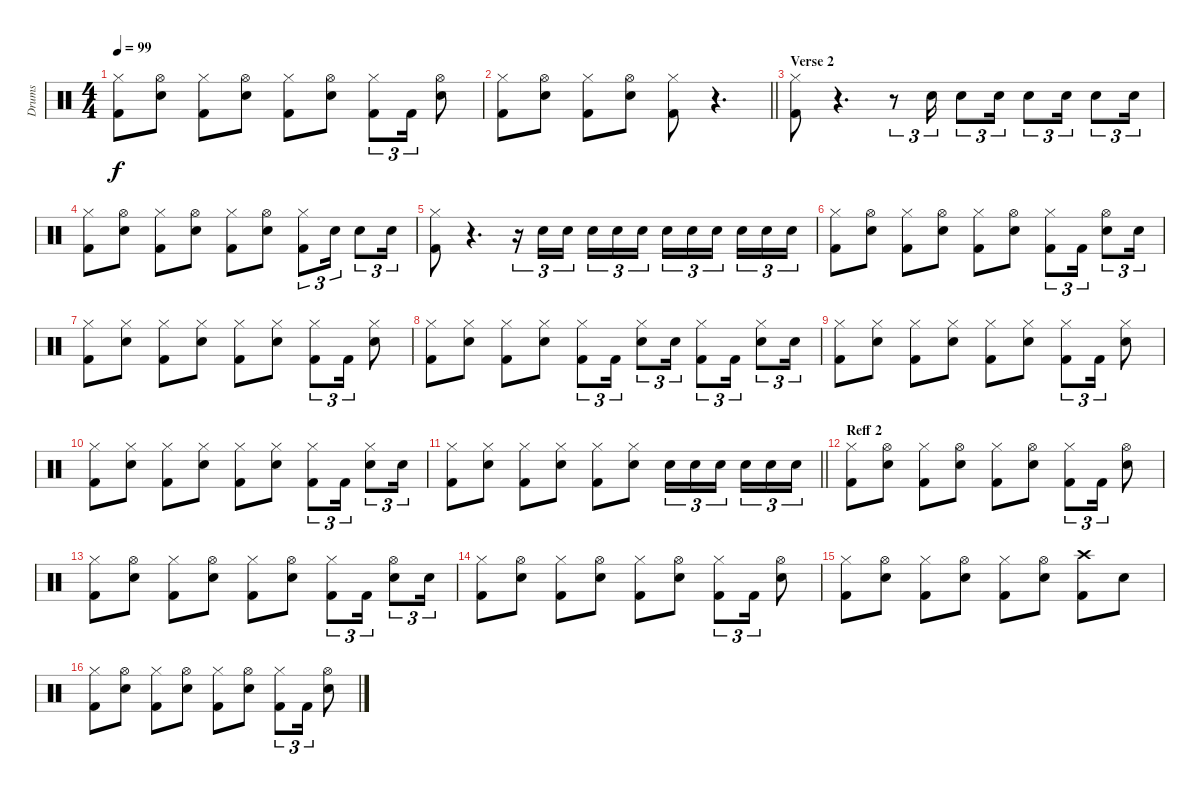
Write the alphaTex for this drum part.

\track ("Drums" "Drums") {instrument percussion}
\staff {score}
\articulation defaults
\ts (4 4)
\tempo 99
\clef neutral
\ks c
("Hi-Hat (closed)" "Kick (hit) 2").8{dy f} ("Hi-Hat (open)" "Snare (hit) 2").8 ("Hi-Hat (closed)" "Kick (hit) 2").8 ("Hi-Hat (open)" "Snare (hit) 2").8 ("Hi-Hat (closed)" "Kick (hit) 2").8 ("Hi-Hat (open)" "Snare (hit) 2").8 ("Hi-Hat (closed)" "Kick (hit) 2").8{tu (3 2)} "Kick (hit) 2".16{tu (3 2)} ("Hi-Hat (open)" "Snare (hit) 2").8 |
\barLineRight lightlight
("Hi-Hat (closed)" "Kick (hit) 2").8 ("Hi-Hat (open)" "Snare (hit) 2").8 ("Hi-Hat (closed)" "Kick (hit) 2").8 ("Hi-Hat (open)" "Snare (hit) 2").8 ("Hi-Hat (closed)" "Kick (hit) 2").8 r.4{d} |
\section ("" "Verse 2")
("Hi-Hat (closed)" "Kick (hit) 2").8 r.4{d} r.8{tu (3 2)} "Snare (hit) 2".16{tu (3 2)} "Snare (hit) 2".8{tu (3 2)} "Snare (hit) 2".16{tu (3 2)} "Snare (hit) 2".8{tu (3 2)} "Snare (hit) 2".16{tu (3 2)} "Snare (hit) 2".8{tu (3 2)} "Snare (hit) 2".16{tu (3 2)} |
("Hi-Hat (closed)" "Kick (hit) 2").8 ("Hi-Hat (open)" "Snare (hit) 2").8 ("Hi-Hat (closed)" "Kick (hit) 2").8 ("Hi-Hat (open)" "Snare (hit) 2").8 ("Hi-Hat (closed)" "Kick (hit) 2").8 ("Hi-Hat (open)" "Snare (hit) 2").8 ("Hi-Hat (closed)" "Kick (hit) 2").8{tu (3 2)} "Snare (hit) 2".16{tu (3 2)} "Snare (hit) 2".8{tu (3 2)} "Snare (hit) 2".16{tu (3 2)} |
("Hi-Hat (closed)" "Kick (hit) 2").8 r.4{d} r.16{tu (3 2)} "Snare (hit) 2".16{tu (3 2)} "Snare (hit) 2".16{tu (3 2) beam splitsecondary} "Snare (hit) 2".16{tu (3 2)} "Snare (hit) 2".16{tu (3 2)} "Snare (hit) 2".16{tu (3 2)} "Snare (hit) 2".16{tu (3 2)} "Snare (hit) 2".16{tu (3 2)} "Snare (hit) 2".16{tu (3 2) beam splitsecondary} "Snare (hit) 2".16{tu (3 2)} "Snare (hit) 2".16{tu (3 2)} "Snare (hit) 2".16{tu (3 2)} |
("Hi-Hat (closed)" "Kick (hit) 2").8 ("Hi-Hat (open)" "Snare (hit) 2").8 ("Hi-Hat (closed)" "Kick (hit) 2").8 ("Hi-Hat (open)" "Snare (hit) 2").8 ("Hi-Hat (closed)" "Kick (hit) 2").8 ("Hi-Hat (open)" "Snare (hit) 2").8 ("Hi-Hat (closed)" "Kick (hit) 2").8{tu (3 2)} "Kick (hit) 2".16{tu (3 2)} ("Hi-Hat (open)" "Snare (hit) 2").8{tu (3 2)} "Snare (hit) 2".16{tu (3 2)} |
("Hi-Hat (closed)" "Kick (hit) 2").8 ("Hi-Hat (closed)" "Snare (hit) 2").8 ("Hi-Hat (closed)" "Kick (hit) 2").8 ("Hi-Hat (closed)" "Snare (hit) 2").8 ("Hi-Hat (closed)" "Kick (hit) 2").8 ("Hi-Hat (closed)" "Snare (hit) 2").8 ("Hi-Hat (closed)" "Kick (hit) 2").8{tu (3 2)} "Kick (hit) 2".16{tu (3 2)} ("Hi-Hat (closed)" "Snare (hit) 2").8 |
("Hi-Hat (closed)" "Kick (hit) 2").8 ("Hi-Hat (closed)" "Snare (hit) 2").8 ("Hi-Hat (closed)" "Kick (hit) 2").8 ("Hi-Hat (closed)" "Snare (hit) 2").8 ("Hi-Hat (closed)" "Kick (hit) 2").8{tu (3 2)} "Kick (hit) 2".16{tu (3 2)} ("Hi-Hat (closed)" "Snare (hit) 2").8{tu (3 2)} "Snare (hit) 2".16{tu (3 2)} ("Hi-Hat (closed)" "Kick (hit) 2").8{tu (3 2)} "Kick (hit) 2".16{tu (3 2)} ("Hi-Hat (closed)" "Snare (hit) 2").8{tu (3 2)} "Snare (hit) 2".16{tu (3 2)} |
("Hi-Hat (closed)" "Kick (hit) 2").8 ("Hi-Hat (closed)" "Snare (hit) 2").8 ("Hi-Hat (closed)" "Kick (hit) 2").8 ("Hi-Hat (closed)" "Snare (hit) 2").8 ("Hi-Hat (closed)" "Kick (hit) 2").8 ("Hi-Hat (closed)" "Snare (hit) 2").8 ("Hi-Hat (closed)" "Kick (hit) 2").8{tu (3 2)} "Kick (hit) 2".16{tu (3 2)} ("Hi-Hat (closed)" "Snare (hit) 2").8 |
("Hi-Hat (closed)" "Kick (hit) 2").8 ("Hi-Hat (closed)" "Snare (hit) 2").8 ("Hi-Hat (closed)" "Kick (hit) 2").8 ("Hi-Hat (closed)" "Snare (hit) 2").8 ("Hi-Hat (closed)" "Kick (hit) 2").8 ("Hi-Hat (closed)" "Snare (hit) 2").8 ("Hi-Hat (closed)" "Kick (hit) 2").8{tu (3 2)} "Kick (hit) 2".16{tu (3 2)} ("Hi-Hat (closed)" "Snare (hit) 2").8{tu (3 2)} "Snare (hit) 2".16{tu (3 2)} |
\barLineRight lightlight
("Hi-Hat (closed)" "Kick (hit) 2").8 ("Hi-Hat (closed)" "Snare (hit) 2").8 ("Hi-Hat (closed)" "Kick (hit) 2").8 ("Hi-Hat (closed)" "Snare (hit) 2").8 ("Hi-Hat (closed)" "Kick (hit) 2").8 ("Hi-Hat (closed)" "Snare (hit) 2").8 "Snare (hit) 2".16{tu (3 2)} "Snare (hit) 2".16{tu (3 2)} "Snare (hit) 2".16{tu (3 2) beam splitsecondary} "Snare (hit) 2".16{tu (3 2)} "Snare (hit) 2".16{tu (3 2)} "Snare (hit) 2".16{tu (3 2)} |
\section ("" "Reff 2")
("Hi-Hat (closed)" "Kick (hit) 2").8 ("Hi-Hat (open)" "Snare (hit) 2").8 ("Hi-Hat (closed)" "Kick (hit) 2").8 ("Hi-Hat (open)" "Snare (hit) 2").8 ("Hi-Hat (closed)" "Kick (hit) 2").8 ("Hi-Hat (open)" "Snare (hit) 2").8 ("Hi-Hat (closed)" "Kick (hit) 2").8{tu (3 2)} "Kick (hit) 2".16{tu (3 2)} ("Hi-Hat (open)" "Snare (hit) 2").8 |
("Hi-Hat (closed)" "Kick (hit) 2").8 ("Hi-Hat (open)" "Snare (hit) 2").8 ("Hi-Hat (closed)" "Kick (hit) 2").8 ("Hi-Hat (open)" "Snare (hit) 2").8 ("Hi-Hat (closed)" "Kick (hit) 2").8 ("Hi-Hat (open)" "Snare (hit) 2").8 ("Hi-Hat (closed)" "Kick (hit) 2").8{tu (3 2)} "Kick (hit) 2".16{tu (3 2)} ("Hi-Hat (open)" "Snare (hit) 2").8{tu (3 2)} "Snare (hit) 2".16{tu (3 2)} |
("Hi-Hat (closed)" "Kick (hit) 2").8 ("Hi-Hat (open)" "Snare (hit) 2").8 ("Hi-Hat (closed)" "Kick (hit) 2").8 ("Hi-Hat (open)" "Snare (hit) 2").8 ("Hi-Hat (closed)" "Kick (hit) 2").8 ("Hi-Hat (open)" "Snare (hit) 2").8 ("Hi-Hat (closed)" "Kick (hit) 2").8{tu (3 2)} "Kick (hit) 2".16{tu (3 2)} ("Hi-Hat (open)" "Snare (hit) 2").8 |
("Hi-Hat (closed)" "Kick (hit) 2").8 ("Hi-Hat (open)" "Snare (hit) 2").8 ("Hi-Hat (closed)" "Kick (hit) 2").8 ("Hi-Hat (open)" "Snare (hit) 2").8 ("Hi-Hat (closed)" "Kick (hit) 2").8 ("Hi-Hat (open)" "Snare (hit) 2").8 ("Crash high (hit)" "Kick (hit) 2").8 "Snare (hit) 2".8 |
("Hi-Hat (closed)" "Kick (hit) 2").8 ("Hi-Hat (open)" "Snare (hit) 2").8 ("Hi-Hat (closed)" "Kick (hit) 2").8 ("Hi-Hat (open)" "Snare (hit) 2").8 ("Hi-Hat (closed)" "Kick (hit) 2").8 ("Hi-Hat (open)" "Snare (hit) 2").8 ("Hi-Hat (closed)" "Kick (hit) 2").8{tu (3 2)} "Kick (hit) 2".16{tu (3 2)} ("Hi-Hat (open)" "Snare (hit) 2").8
